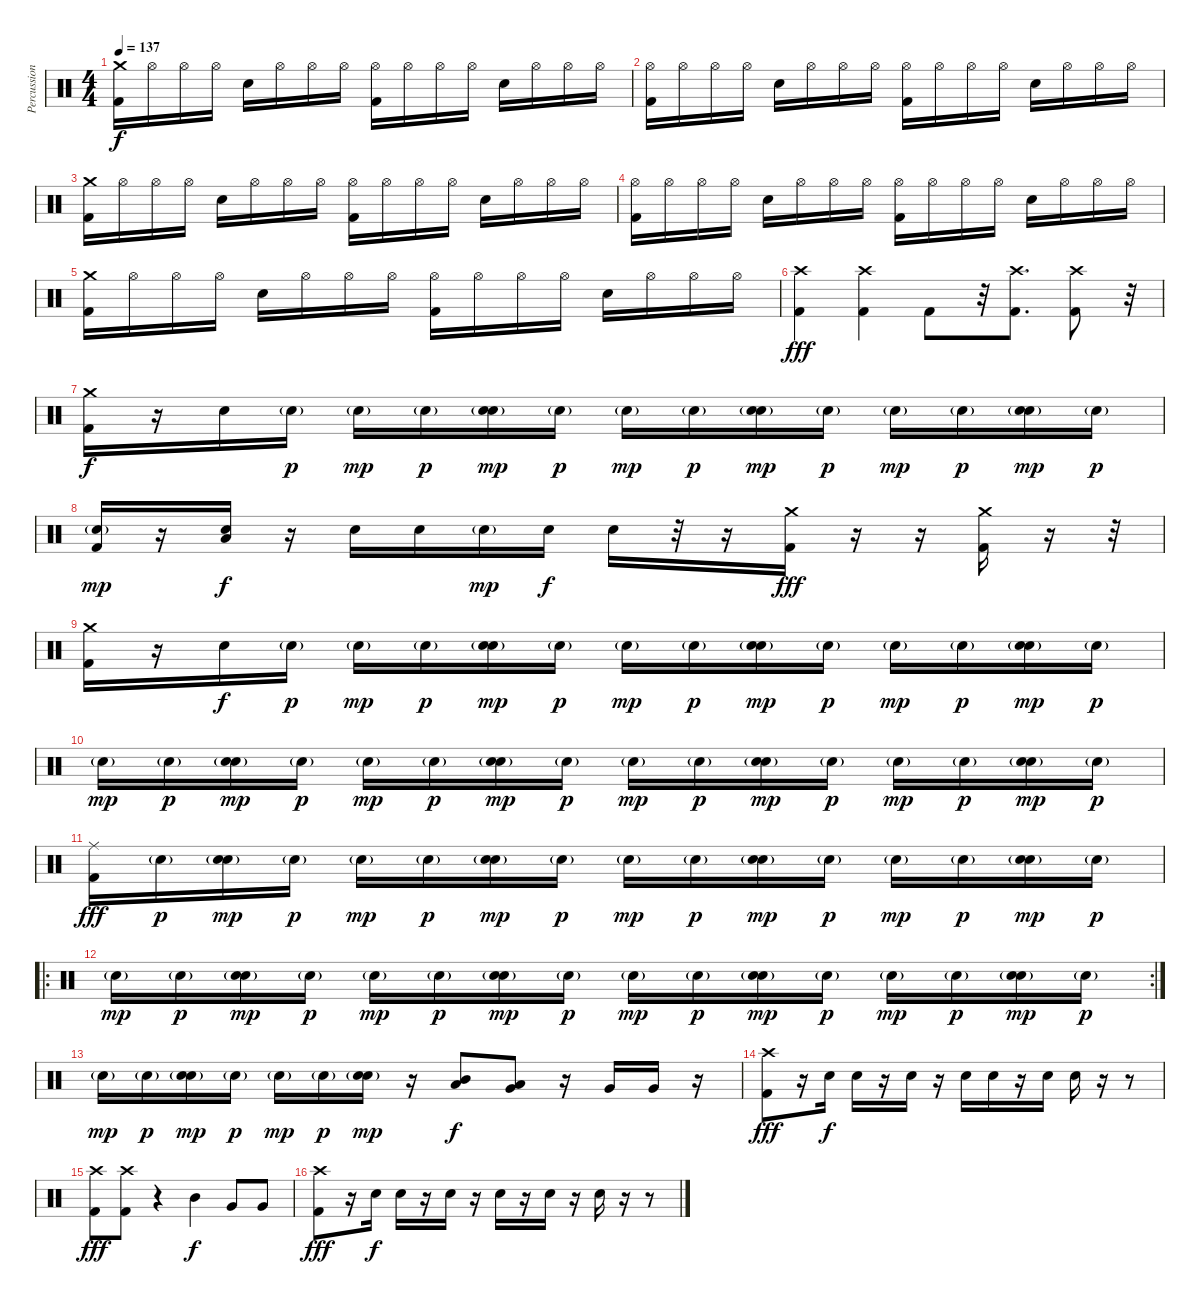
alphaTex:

\track ("Percussion" "Percussion") {instrument percussion}
\staff {score}
\articulation defaults
\ts (4 4)
\tempo 137
\clef neutral
\ks c
("Crash medium (hit)" "Kick (hit) 2").16{dy f} "Hi-Hat (open)".16 "Hi-Hat (open)".16 "Hi-Hat (open)".16 "Electric Snare (hit)".16 "Hi-Hat (open)".16 "Hi-Hat (open)".16 "Hi-Hat (open)".16 ("Hi-Hat (open)" "Kick (hit) 2").16 "Hi-Hat (open)".16 "Hi-Hat (open)".16 "Hi-Hat (open)".16 "Electric Snare (hit)".16 "Hi-Hat (open)".16 "Hi-Hat (open)".16 "Hi-Hat (open)".16 |
("Hi-Hat (open)" "Kick (hit) 2").16 "Hi-Hat (open)".16 "Hi-Hat (open)".16 "Hi-Hat (open)".16 "Electric Snare (hit)".16 "Hi-Hat (open)".16 "Hi-Hat (open)".16 "Hi-Hat (open)".16 ("Hi-Hat (open)" "Kick (hit) 2").16 "Hi-Hat (open)".16 "Hi-Hat (open)".16 "Hi-Hat (open)".16 "Electric Snare (hit)".16 "Hi-Hat (open)".16 "Hi-Hat (open)".16 "Hi-Hat (open)".16 |
("Crash medium (hit)" "Kick (hit) 2").16 "Hi-Hat (open)".16 "Hi-Hat (open)".16 "Hi-Hat (open)".16 "Electric Snare (hit)".16 "Hi-Hat (open)".16 "Hi-Hat (open)".16 "Hi-Hat (open)".16 ("Hi-Hat (open)" "Kick (hit) 2").16 "Hi-Hat (open)".16 "Hi-Hat (open)".16 "Hi-Hat (open)".16 "Electric Snare (hit)".16 "Hi-Hat (open)".16 "Hi-Hat (open)".16 "Hi-Hat (open)".16 |
("Hi-Hat (open)" "Kick (hit) 2").16 "Hi-Hat (open)".16 "Hi-Hat (open)".16 "Hi-Hat (open)".16 "Electric Snare (hit)".16 "Hi-Hat (open)".16 "Hi-Hat (open)".16 "Hi-Hat (open)".16 ("Hi-Hat (open)" "Kick (hit) 2").16 "Hi-Hat (open)".16 "Hi-Hat (open)".16 "Hi-Hat (open)".16 "Electric Snare (hit)".16 "Hi-Hat (open)".16 "Hi-Hat (open)".16 "Hi-Hat (open)".16 |
("Crash medium (hit)" "Kick (hit) 2").16 "Hi-Hat (open)".16 "Hi-Hat (open)".16 "Hi-Hat (open)".16 "Electric Snare (hit)".16 "Hi-Hat (open)".16 "Hi-Hat (open)".16 "Hi-Hat (open)".16 ("Hi-Hat (open)" "Kick (hit) 2").16 "Hi-Hat (open)".16 "Hi-Hat (open)".16 "Hi-Hat (open)".16 "Electric Snare (hit)".16 "Hi-Hat (open)".16 "Hi-Hat (open)".16 "Hi-Hat (open)".16 |
("Crash high (hit)" "Kick (hit) 2").4{dy fff} ("Crash high (hit)" "Kick (hit) 2").4 "Kick (hit) 2".8 r.32 ("Crash high (hit)" "Kick (hit) 2").8{d} ("Crash high (hit)" "Kick (hit) 2").8 r.32 |
("Crash medium (hit)" "Kick (hit) 2").16{dy f} r.16 "Electric Snare (hit)".16 "Electric Snare (hit)"{g}.16{dy p} "Electric Snare (hit)"{g}.16{dy mp} "Electric Snare (hit)"{g}.16{dy p} ("Electric Snare (hit)"{g} "Electric Snare (hit)").16{dy mp} "Electric Snare (hit)"{g}.16{dy p} "Electric Snare (hit)"{g}.16{dy mp} "Electric Snare (hit)"{g}.16{dy p} ("Electric Snare (hit)"{g} "Electric Snare (hit)").16{dy mp} "Electric Snare (hit)"{g}.16{dy p} "Electric Snare (hit)"{g}.16{dy mp} "Electric Snare (hit)"{g}.16{dy p} ("Electric Snare (hit)"{g} "Electric Snare (hit)").16{dy mp} "Electric Snare (hit)"{g}.16{dy p} |
("Electric Snare (hit)"{g} "Kick (hit) 2").16{dy mp} r.16 ("Low Tom (hit)" "Electric Snare (hit)").16{dy f} r.16 "Electric Snare (hit)".16 "Electric Snare (hit)".16 "Electric Snare (hit)"{g}.16{dy mp} "Electric Snare (hit)".16{dy f} "Electric Snare (hit)".16 r.32 r.16 ("Crash medium (hit)" "Kick (hit) 2").16{dy fff} r.16 r.16 ("Crash medium (hit)" "Kick (hit) 2").16 r.16 r.32 |
("Crash medium (hit)" "Kick (hit) 2").16 r.16 "Electric Snare (hit)".16{dy f} "Electric Snare (hit)"{g}.16{dy p} "Electric Snare (hit)"{g}.16{dy mp} "Electric Snare (hit)"{g}.16{dy p} ("Electric Snare (hit)"{g} "Electric Snare (hit)").16{dy mp} "Electric Snare (hit)"{g}.16{dy p} "Electric Snare (hit)"{g}.16{dy mp} "Electric Snare (hit)"{g}.16{dy p} ("Electric Snare (hit)"{g} "Electric Snare (hit)").16{dy mp} "Electric Snare (hit)"{g}.16{dy p} "Electric Snare (hit)"{g}.16{dy mp} "Electric Snare (hit)"{g}.16{dy p} ("Electric Snare (hit)"{g} "Electric Snare (hit)").16{dy mp} "Electric Snare (hit)"{g}.16{dy p} |
"Electric Snare (hit)"{g}.16{dy mp} "Electric Snare (hit)"{g}.16{dy p} ("Electric Snare (hit)"{g} "Electric Snare (hit)").16{dy mp} "Electric Snare (hit)"{g}.16{dy p} "Electric Snare (hit)"{g}.16{dy mp} "Electric Snare (hit)"{g}.16{dy p} ("Electric Snare (hit)"{g} "Electric Snare (hit)").16{dy mp} "Electric Snare (hit)"{g}.16{dy p} "Electric Snare (hit)"{g}.16{dy mp} "Electric Snare (hit)"{g}.16{dy p} ("Electric Snare (hit)"{g} "Electric Snare (hit)").16{dy mp} "Electric Snare (hit)"{g}.16{dy p} "Electric Snare (hit)"{g}.16{dy mp} "Electric Snare (hit)"{g}.16{dy p} ("Electric Snare (hit)"{g} "Electric Snare (hit)").16{dy mp} "Electric Snare (hit)"{g}.16{dy p} |
("Ride (middle)" "Kick (hit) 2").16{dy fff} "Electric Snare (hit)"{g}.16{dy p} ("Electric Snare (hit)"{g} "Electric Snare (hit)").16{dy mp} "Electric Snare (hit)"{g}.16{dy p} "Electric Snare (hit)"{g}.16{dy mp} "Electric Snare (hit)"{g}.16{dy p} ("Electric Snare (hit)"{g} "Electric Snare (hit)").16{dy mp} "Electric Snare (hit)"{g}.16{dy p} "Electric Snare (hit)"{g}.16{dy mp} "Electric Snare (hit)"{g}.16{dy p} ("Electric Snare (hit)"{g} "Electric Snare (hit)").16{dy mp} "Electric Snare (hit)"{g}.16{dy p} "Electric Snare (hit)"{g}.16{dy mp} "Electric Snare (hit)"{g}.16{dy p} ("Electric Snare (hit)"{g} "Electric Snare (hit)").16{dy mp} "Electric Snare (hit)"{g}.16{dy p} |
\ro
\rc 2 "Electric Snare (hit)"{g}.16{dy mp} "Electric Snare (hit)"{g}.16{dy p}
("Electric Snare (hit)"{g} "Electric Snare (hit)").16{dy mp} "Electric Snare (hit)"{g}.16{dy p} "Electric Snare (hit)"{g}.16{dy mp} "Electric Snare (hit)"{g}.16{dy p} ("Electric Snare (hit)"{g} "Electric Snare (hit)").16{dy mp} "Electric Snare (hit)"{g}.16{dy p} "Electric Snare (hit)"{g}.16{dy mp} "Electric Snare (hit)"{g}.16{dy p} ("Electric Snare (hit)"{g} "Electric Snare (hit)").16{dy mp} "Electric Snare (hit)"{g}.16{dy p} "Electric Snare (hit)"{g}.16{dy mp} "Electric Snare (hit)"{g}.16{dy p} ("Electric Snare (hit)"{g} "Electric Snare (hit)").16{dy mp} "Electric Snare (hit)"{g}.16{dy p} |
"Electric Snare (hit)"{g}.16{dy mp} "Electric Snare (hit)"{g}.16{dy p} ("Electric Snare (hit)"{g} "Electric Snare (hit)").16{dy mp} "Electric Snare (hit)"{g}.16{dy p} "Electric Snare (hit)"{g}.16{dy mp} "Electric Snare (hit)"{g}.16{dy p} ("Electric Snare (hit)"{g} "Electric Snare (hit)").16{dy mp} r.16 ("Mid Tom (hit)" "Low Tom (hit)").8{bu 120 dy f} ("Low Tom (hit)" "Very Low Tom (hit)").8{bu 120} r.16 "Very Low Tom (hit)".16 "Very Low Tom (hit)".16 r.16 |
("Crash high (hit)" "Kick (hit) 2").8{dy fff} r.16 "Electric Snare (hit)".16{dy f} "Electric Snare (hit)".16 r.16 "Electric Snare (hit)".16 r.16 "Electric Snare (hit)".16 "Electric Snare (hit)".16 r.16 "Electric Snare (hit)".16 "Electric Snare (hit)".16 r.16 r.8 |
("Crash high (hit)" "Kick (hit) 2").8{dy fff} ("Crash high (hit)" "Kick (hit) 2").8 r.4 "Mid Tom (hit)".4{dy f} "Very Low Tom (hit)".8 "Very Low Tom (hit)".8 |
("Crash high (hit)" "Kick (hit) 2").8{dy fff} r.16 "Electric Snare (hit)".16{dy f} "Electric Snare (hit)".16 r.16 "Electric Snare (hit)".16 r.16 "Electric Snare (hit)".16 r.16 "Electric Snare (hit)".16 r.16 "Electric Snare (hit)".16 r.16 r.8
